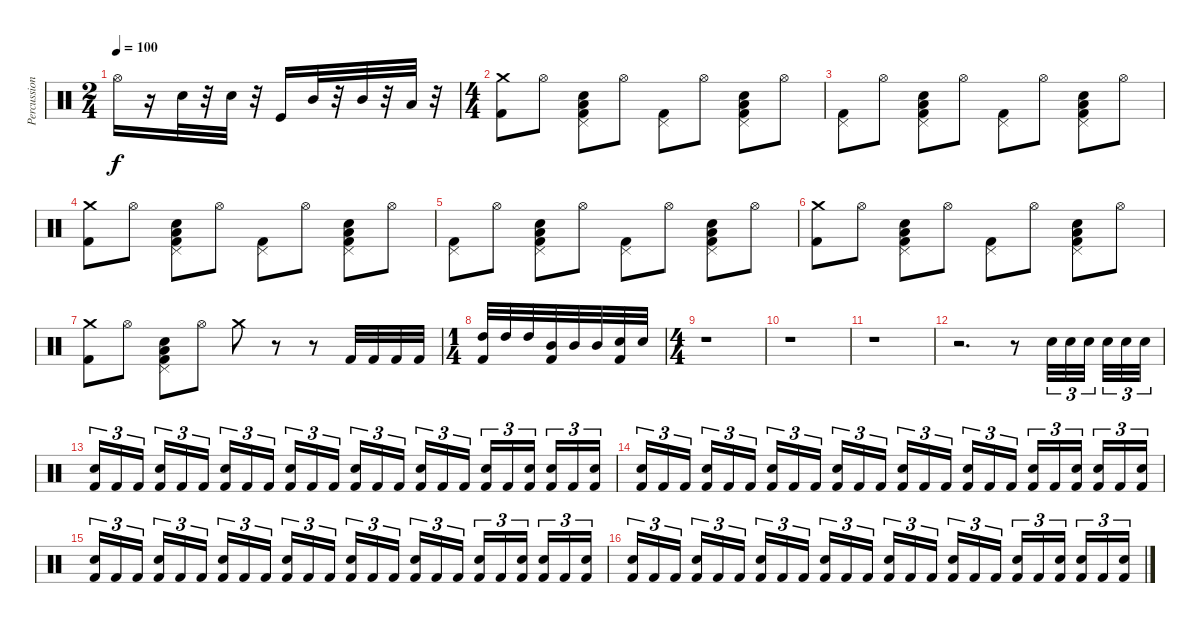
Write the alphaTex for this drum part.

\track ("Percussion" "Percussion") {instrument percussion}
\staff {score}
\articulation defaults
\ts (2 4)
\tempo 100
\clef neutral
\ks c "Hi-Hat (open)".16{dy f}
r.16 "Snare (hit) 2".32 r.32 "Snare (hit) 2".32 r.32 "Kick (hit)".16 "Mid Tom (hit)".32 r.32 "Mid Tom (hit)".32 r.32 "Low Tom (hit)".32 r.32 |
\ts (4 4)
("Kick (hit) 2" "Crash medium (hit)").8 "Hi-Hat (open)".8 ("Snare (hit) 2" "Low Floor Tom (hit)" "Pedal Hi-Hat (hit)" "Kick (hit) 2").8 "Hi-Hat (open)".8 ("Kick (hit) 2" "Pedal Hi-Hat (hit)").8 "Hi-Hat (open)".8 ("Snare (hit) 2" "Low Floor Tom (hit)" "Pedal Hi-Hat (hit)" "Kick (hit) 2").8 "Hi-Hat (open)".8 |
("Kick (hit) 2" "Pedal Hi-Hat (hit)").8 "Hi-Hat (open)".8 ("Snare (hit) 2" "Low Floor Tom (hit)" "Pedal Hi-Hat (hit)" "Kick (hit) 2").8 "Hi-Hat (open)".8 ("Kick (hit) 2" "Pedal Hi-Hat (hit)").8 "Hi-Hat (open)".8 ("Snare (hit) 2" "Low Floor Tom (hit)" "Pedal Hi-Hat (hit)" "Kick (hit) 2").8 "Hi-Hat (open)".8 |
("Kick (hit) 2" "Crash medium (hit)").8 "Hi-Hat (open)".8 ("Snare (hit) 2" "Low Floor Tom (hit)" "Pedal Hi-Hat (hit)" "Kick (hit) 2").8 "Hi-Hat (open)".8 ("Kick (hit) 2" "Pedal Hi-Hat (hit)").8 "Hi-Hat (open)".8 ("Snare (hit) 2" "Low Floor Tom (hit)" "Pedal Hi-Hat (hit)" "Kick (hit) 2").8 "Hi-Hat (open)".8 |
("Kick (hit) 2" "Pedal Hi-Hat (hit)").8 "Hi-Hat (open)".8 ("Snare (hit) 2" "Low Floor Tom (hit)" "Pedal Hi-Hat (hit)" "Kick (hit) 2").8 "Hi-Hat (open)".8 ("Kick (hit) 2" "Pedal Hi-Hat (hit)").8 "Hi-Hat (open)".8 ("Snare (hit) 2" "Low Floor Tom (hit)" "Pedal Hi-Hat (hit)" "Kick (hit) 2").8 "Hi-Hat (open)".8 |
("Kick (hit) 2" "Crash medium (hit)").8 "Hi-Hat (open)".8 ("Snare (hit) 2" "Low Floor Tom (hit)" "Pedal Hi-Hat (hit)" "Kick (hit) 2").8 "Hi-Hat (open)".8 ("Kick (hit) 2" "Pedal Hi-Hat (hit)").8 "Hi-Hat (open)".8 ("Snare (hit) 2" "Low Floor Tom (hit)" "Pedal Hi-Hat (hit)" "Kick (hit) 2").8 "Hi-Hat (open)".8 |
("Kick (hit) 2" "Crash medium (hit)").8 "Hi-Hat (open)".8 ("Snare (hit) 2" "Low Floor Tom (hit)" "Pedal Hi-Hat (hit)" "Kick (hit) 2").8 "Hi-Hat (open)".8 "Crash medium (hit)".8 r.8 r.8 "Kick (hit) 2".32 "Kick (hit) 2".32 "Kick (hit) 2".32 "Kick (hit) 2".32 |
\ts (1 4)
("High Tom (hit)" "Kick (hit) 2").32 "High Tom (hit)".32 "High Tom (hit)".32 ("Mid Tom (hit)" "Kick (hit) 2").32 "Mid Tom (hit)".32 "Mid Tom (hit)".32 ("Snare (hit) 2" "Kick (hit) 2").32 "Snare (hit) 2".32 |
\ts (4 4)
r.1 |
r.1 |
r.1 |
r.2{d} r.8 "Snare (hit) 2".32{tu (3 2)} "Snare (hit) 2".32{tu (3 2)} "Snare (hit) 2".32{tu (3 2)} "Snare (hit) 2".32{tu (3 2)} "Snare (hit) 2".32{tu (3 2)} "Snare (hit) 2".32{tu (3 2)} |
("Snare (hit) 2" "Kick (hit) 2").16{tu (3 2)} "Kick (hit) 2".16{tu (3 2)} "Kick (hit) 2".16{tu (3 2)} ("Snare (hit) 2" "Kick (hit) 2").16{tu (3 2)} "Kick (hit) 2".16{tu (3 2)} "Kick (hit) 2".16{tu (3 2)} ("Snare (hit) 2" "Kick (hit) 2").16{tu (3 2)} "Kick (hit) 2".16{tu (3 2)} "Kick (hit) 2".16{tu (3 2)} ("Snare (hit) 2" "Kick (hit) 2").16{tu (3 2)} "Kick (hit) 2".16{tu (3 2)} "Kick (hit) 2".16{tu (3 2)} ("Snare (hit) 2" "Kick (hit) 2").16{tu (3 2)} "Kick (hit) 2".16{tu (3 2)} "Kick (hit) 2".16{tu (3 2)} ("Snare (hit) 2" "Kick (hit) 2").16{tu (3 2)} "Kick (hit) 2".16{tu (3 2)} "Kick (hit) 2".16{tu (3 2)} ("Snare (hit) 2" "Kick (hit) 2").16{tu (3 2)} "Kick (hit) 2".16{tu (3 2)} ("Snare (hit) 2" "Kick (hit) 2").16{tu (3 2)} ("Snare (hit) 2" "Kick (hit) 2").16{tu (3 2)} "Kick (hit) 2".16{tu (3 2)} ("Snare (hit) 2" "Kick (hit) 2").16{tu (3 2)} |
("Snare (hit) 2" "Kick (hit) 2").16{tu (3 2)} "Kick (hit) 2".16{tu (3 2)} "Kick (hit) 2".16{tu (3 2)} ("Snare (hit) 2" "Kick (hit) 2").16{tu (3 2)} "Kick (hit) 2".16{tu (3 2)} "Kick (hit) 2".16{tu (3 2)} ("Snare (hit) 2" "Kick (hit) 2").16{tu (3 2)} "Kick (hit) 2".16{tu (3 2)} "Kick (hit) 2".16{tu (3 2)} ("Snare (hit) 2" "Kick (hit) 2").16{tu (3 2)} "Kick (hit) 2".16{tu (3 2)} "Kick (hit) 2".16{tu (3 2)} ("Snare (hit) 2" "Kick (hit) 2").16{tu (3 2)} "Kick (hit) 2".16{tu (3 2)} "Kick (hit) 2".16{tu (3 2)} ("Snare (hit) 2" "Kick (hit) 2").16{tu (3 2)} "Kick (hit) 2".16{tu (3 2)} "Kick (hit) 2".16{tu (3 2)} ("Snare (hit) 2" "Kick (hit) 2").16{tu (3 2)} "Kick (hit) 2".16{tu (3 2)} ("Snare (hit) 2" "Kick (hit) 2").16{tu (3 2)} ("Snare (hit) 2" "Kick (hit) 2").16{tu (3 2)} "Kick (hit) 2".16{tu (3 2)} ("Snare (hit) 2" "Kick (hit) 2").16{tu (3 2)} |
("Snare (hit) 2" "Kick (hit) 2").16{tu (3 2)} "Kick (hit) 2".16{tu (3 2)} "Kick (hit) 2".16{tu (3 2)} ("Snare (hit) 2" "Kick (hit) 2").16{tu (3 2)} "Kick (hit) 2".16{tu (3 2)} "Kick (hit) 2".16{tu (3 2)} ("Snare (hit) 2" "Kick (hit) 2").16{tu (3 2)} "Kick (hit) 2".16{tu (3 2)} "Kick (hit) 2".16{tu (3 2)} ("Snare (hit) 2" "Kick (hit) 2").16{tu (3 2)} "Kick (hit) 2".16{tu (3 2)} "Kick (hit) 2".16{tu (3 2)} ("Snare (hit) 2" "Kick (hit) 2").16{tu (3 2)} "Kick (hit) 2".16{tu (3 2)} "Kick (hit) 2".16{tu (3 2)} ("Snare (hit) 2" "Kick (hit) 2").16{tu (3 2)} "Kick (hit) 2".16{tu (3 2)} "Kick (hit) 2".16{tu (3 2)} ("Snare (hit) 2" "Kick (hit) 2").16{tu (3 2)} "Kick (hit) 2".16{tu (3 2)} ("Snare (hit) 2" "Kick (hit) 2").16{tu (3 2)} ("Snare (hit) 2" "Kick (hit) 2").16{tu (3 2)} "Kick (hit) 2".16{tu (3 2)} ("Snare (hit) 2" "Kick (hit) 2").16{tu (3 2)} |
("Snare (hit) 2" "Kick (hit) 2").16{tu (3 2)} "Kick (hit) 2".16{tu (3 2)} "Kick (hit) 2".16{tu (3 2)} ("Snare (hit) 2" "Kick (hit) 2").16{tu (3 2)} "Kick (hit) 2".16{tu (3 2)} "Kick (hit) 2".16{tu (3 2)} ("Snare (hit) 2" "Kick (hit) 2").16{tu (3 2)} "Kick (hit) 2".16{tu (3 2)} "Kick (hit) 2".16{tu (3 2)} ("Snare (hit) 2" "Kick (hit) 2").16{tu (3 2)} "Kick (hit) 2".16{tu (3 2)} "Kick (hit) 2".16{tu (3 2)} ("Snare (hit) 2" "Kick (hit) 2").16{tu (3 2)} "Kick (hit) 2".16{tu (3 2)} "Kick (hit) 2".16{tu (3 2)} ("Snare (hit) 2" "Kick (hit) 2").16{tu (3 2)} "Kick (hit) 2".16{tu (3 2)} "Kick (hit) 2".16{tu (3 2)} ("Snare (hit) 2" "Kick (hit) 2").16{tu (3 2)} "Kick (hit) 2".16{tu (3 2)} ("Snare (hit) 2" "Kick (hit) 2").16{tu (3 2)} ("Snare (hit) 2" "Kick (hit) 2").16{tu (3 2)} "Kick (hit) 2".16{tu (3 2)} ("Snare (hit) 2" "Kick (hit) 2").16{tu (3 2)}
